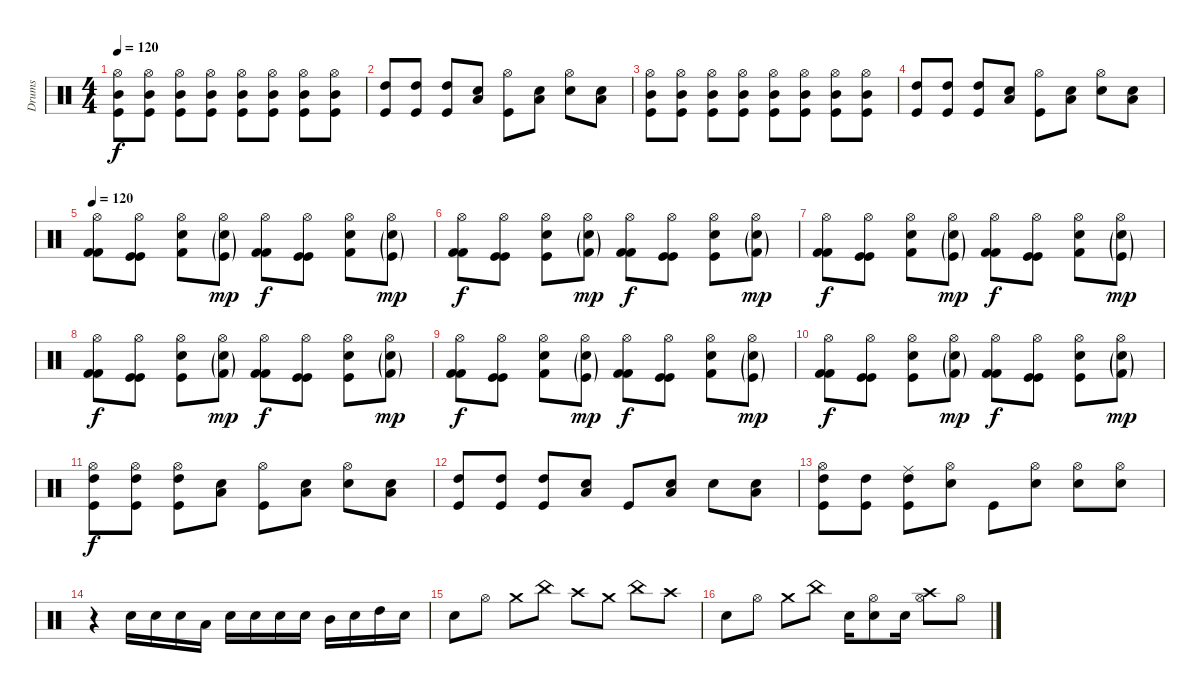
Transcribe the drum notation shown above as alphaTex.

\track ("Drums" "Drums") {instrument percussion}
\staff {score}
\articulation defaults
\ts (4 4)
\tempo 120
\clef neutral
\ks c
("Hi-Hat (open)" "Mid Tom (hit)" "Kick (hit)").8{dy f} ("Hi-Hat (open)" "Mid Tom (hit)" "Kick (hit)").8 ("Hi-Hat (open)" "Mid Tom (hit)" "Kick (hit)").8 ("Hi-Hat (open)" "Mid Tom (hit)" "Kick (hit)").8 ("Hi-Hat (open)" "Mid Tom (hit)" "Kick (hit)").8 ("Hi-Hat (open)" "Mid Tom (hit)" "Kick (hit)").8 ("Hi-Hat (open)" "Mid Tom (hit)" "Kick (hit)").8 ("Hi-Hat (open)" "Mid Tom (hit)" "Kick (hit)").8 |
("High Tom (hit)" "Kick (hit)").8 ("High Tom (hit)" "Kick (hit)").8 ("High Tom (hit)" "Kick (hit)").8 ("Low Tom (hit)" "Snare (hit) 2").8 ("Hi-Hat (open)" "Kick (hit)").8 ("Low Tom (hit)" "Snare (hit) 2").8 ("Hi-Hat (open)" "Electric Snare (hit)").8 ("Low Tom (hit)" "Snare (hit) 2").8 |
("Hi-Hat (open)" "Mid Tom (hit)" "Kick (hit)").8 ("Hi-Hat (open)" "Mid Tom (hit)" "Kick (hit)").8 ("Hi-Hat (open)" "Mid Tom (hit)" "Kick (hit)").8 ("Hi-Hat (open)" "Mid Tom (hit)" "Kick (hit)").8 ("Hi-Hat (open)" "Mid Tom (hit)" "Kick (hit)").8 ("Hi-Hat (open)" "Mid Tom (hit)" "Kick (hit)").8 ("Hi-Hat (open)" "Mid Tom (hit)" "Kick (hit)").8 ("Hi-Hat (open)" "Mid Tom (hit)" "Kick (hit)").8 |
("High Tom (hit)" "Kick (hit)").8 ("High Tom (hit)" "Kick (hit)").8 ("High Tom (hit)" "Kick (hit)").8 ("Low Tom (hit)" "Snare (hit) 2").8 ("Hi-Hat (open)" "Kick (hit)").8 ("Low Tom (hit)" "Snare (hit) 2").8 ("Hi-Hat (open)" "Electric Snare (hit)").8 ("Low Tom (hit)" "Snare (hit) 2").8 |
\tempo 120
("Hi-Hat (open)" "Kick (hit) 2" "Kick (hit) 2").8 ("Hi-Hat (open)" "Kick (hit)" "Kick (hit)").8 ("Hi-Hat (open)" "Snare (hit) 2" "Kick (hit) 2").8 ("Hi-Hat (open)" "Electric Snare (hit)"{g} "Kick (hit)"{g}).8{dy mp} ("Hi-Hat (open)" "Kick (hit) 2" "Kick (hit) 2").8{dy f} ("Hi-Hat (open)" "Kick (hit)" "Kick (hit)").8 ("Hi-Hat (open)" "Snare (hit) 2" "Kick (hit) 2").8 ("Hi-Hat (open)" "Electric Snare (hit)"{g} "Kick (hit)"{g}).8{dy mp} |
("Hi-Hat (open)" "Kick (hit) 2" "Kick (hit) 2").8{dy f} ("Hi-Hat (open)" "Kick (hit)" "Kick (hit)").8 ("Hi-Hat (open)" "Electric Snare (hit)" "Kick (hit)").8 ("Hi-Hat (open)" "Snare (hit) 2"{g} "Kick (hit) 2"{g}).8{dy mp} ("Hi-Hat (open)" "Kick (hit) 2" "Kick (hit) 2").8{dy f} ("Hi-Hat (open)" "Kick (hit)" "Kick (hit)").8 ("Hi-Hat (open)" "Electric Snare (hit)" "Kick (hit)").8 ("Hi-Hat (open)" "Snare (hit) 2"{g} "Kick (hit) 2"{g}).8{dy mp} |
("Hi-Hat (open)" "Kick (hit) 2" "Kick (hit) 2").8{dy f} ("Hi-Hat (open)" "Kick (hit)" "Kick (hit)").8 ("Hi-Hat (open)" "Snare (hit) 2" "Kick (hit) 2").8 ("Hi-Hat (open)" "Electric Snare (hit)"{g} "Kick (hit)"{g}).8{dy mp} ("Hi-Hat (open)" "Kick (hit) 2" "Kick (hit) 2").8{dy f} ("Hi-Hat (open)" "Kick (hit)" "Kick (hit)").8 ("Hi-Hat (open)" "Snare (hit) 2" "Kick (hit) 2").8 ("Hi-Hat (open)" "Electric Snare (hit)"{g} "Kick (hit)"{g}).8{dy mp} |
("Hi-Hat (open)" "Kick (hit) 2" "Kick (hit) 2").8{dy f} ("Hi-Hat (open)" "Kick (hit)" "Kick (hit)").8 ("Hi-Hat (open)" "Electric Snare (hit)" "Kick (hit)").8 ("Hi-Hat (open)" "Snare (hit) 2"{g} "Kick (hit) 2"{g}).8{dy mp} ("Hi-Hat (open)" "Kick (hit) 2" "Kick (hit) 2").8{dy f} ("Hi-Hat (open)" "Kick (hit)" "Kick (hit)").8 ("Hi-Hat (open)" "Electric Snare (hit)" "Kick (hit)").8 ("Hi-Hat (open)" "Snare (hit) 2"{g} "Kick (hit) 2"{g}).8{dy mp} |
("Hi-Hat (open)" "Kick (hit) 2" "Kick (hit) 2").8{dy f} ("Hi-Hat (open)" "Kick (hit)" "Kick (hit)").8 ("Hi-Hat (open)" "Snare (hit) 2" "Kick (hit) 2").8 ("Hi-Hat (open)" "Electric Snare (hit)"{g} "Kick (hit)"{g}).8{dy mp} ("Hi-Hat (open)" "Kick (hit) 2" "Kick (hit) 2").8{dy f} ("Hi-Hat (open)" "Kick (hit)" "Kick (hit)").8 ("Hi-Hat (open)" "Snare (hit) 2" "Kick (hit) 2").8 ("Hi-Hat (open)" "Electric Snare (hit)"{g} "Kick (hit)"{g}).8{dy mp} |
("Hi-Hat (open)" "Kick (hit) 2" "Kick (hit) 2").8{dy f} ("Hi-Hat (open)" "Kick (hit)" "Kick (hit)").8 ("Hi-Hat (open)" "Electric Snare (hit)" "Kick (hit)").8 ("Hi-Hat (open)" "Snare (hit) 2"{g} "Kick (hit) 2"{g}).8{dy mp} ("Hi-Hat (open)" "Kick (hit) 2" "Kick (hit) 2").8{dy f} ("Hi-Hat (open)" "Kick (hit)" "Kick (hit)").8 ("Hi-Hat (open)" "Electric Snare (hit)" "Kick (hit)").8 ("Hi-Hat (open)" "Snare (hit) 2"{g} "Kick (hit) 2"{g}).8{dy mp} |
("Hi-Hat (open)" "High Tom (hit)" "Kick (hit)").8{dy f} ("Hi-Hat (open)" "High Tom (hit)" "Kick (hit)").8 ("Hi-Hat (open)" "High Tom (hit)" "Kick (hit)").8 ("Low Tom (hit)" "Snare (hit) 2").8 ("Hi-Hat (open)" "Kick (hit)").8 ("Low Tom (hit)" "Snare (hit) 2").8 ("Hi-Hat (open)" "Electric Snare (hit)").8 ("Low Tom (hit)" "Snare (hit) 2").8 |
("High Tom (hit)" "Kick (hit)").8 ("High Tom (hit)" "Kick (hit)").8 ("High Tom (hit)" "Kick (hit)").8 ("Low Tom (hit)" "Snare (hit) 2").8 "Kick (hit)".8 ("Low Tom (hit)" "Snare (hit) 2").8 "Electric Snare (hit)".8 ("Low Tom (hit)" "Snare (hit) 2").8 |
("Hi-Hat (open)" "High Tom (hit)" "Kick (hit)").8 ("High Tom (hit)" "Kick (hit)").8 ("Ride (middle)" "High Tom (hit)" "Kick (hit)").8 ("Hi-Hat (open)" "Snare (hit) 2").8 "Kick (hit)".8 ("Hi-Hat (open)" "Snare (hit) 2").8 ("Hi-Hat (open)" "Electric Snare (hit)").8 ("Hi-Hat (open)" "Snare (hit) 2").8 |
r.4 "Electric Snare (hit)".16 "Snare (hit) 2".16 "Electric Snare (hit)".16 "Low Tom (hit)".16 "Snare (hit) 2".16 "Electric Snare (hit)".16 "Snare (hit) 2".16 "Electric Snare (hit)".16 "Mid Tom (hit)".16 "Snare (hit) 2".16 "High Tom (hit)".16 "Snare (hit) 2".16 |
"Electric Snare (hit)".8 "Hi-Hat (open)".8 "Crash medium (hit)".8 "China (hit)".8 "Crash high (hit)".8 "Crash medium (hit)".8 "China (hit)".8 "Crash high (hit)".8 |
"Electric Snare (hit)".8 "Hi-Hat (open)".8 "Crash medium (hit)".8 "China (hit)".8 "Electric Snare (hit)".16 ("Hi-Hat (open)" "Snare (hit) 2").8 "Electric Snare (hit)".16 ("Hi-Hat (open)" "Crash high (hit)").8 "Hi-Hat (open)".8
